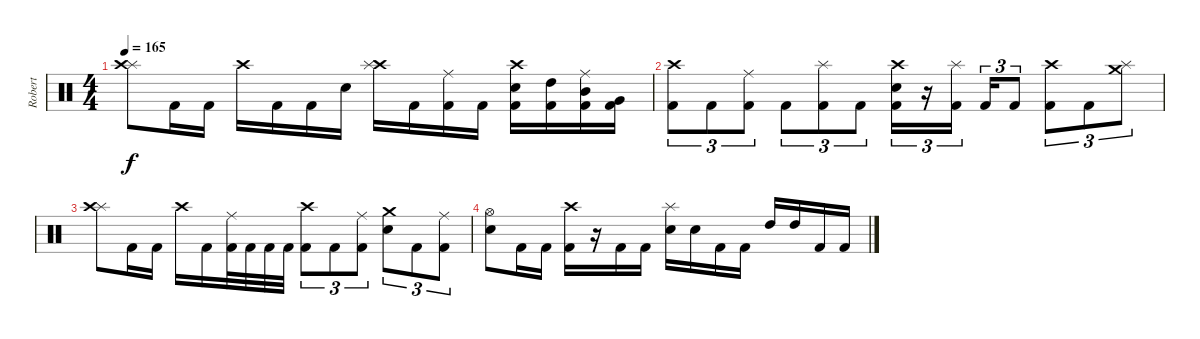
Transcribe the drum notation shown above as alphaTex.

\track ("Robert" "Robert") {instrument percussion}
\staff {score}
\articulation defaults
\ts (4 4)
\tempo 165
\clef neutral
\ks c
("Splash (hit)" "Crash high (hit)").8{dy f} "Kick (hit) 2".16 "Kick (hit) 2".16 "Crash high (hit)".16 "Kick (hit) 2".16 "Kick (hit) 2".16 "Electric Snare (hit)".16 ("Crash high (hit)" "Splash (hit)").16 "Kick (hit) 2".16 ("Ride (middle)" "Kick (hit) 2").16 "Kick (hit) 2".16 ("Kick (hit) 2" "Electric Snare (hit)" "Crash high (hit)").16 ("Kick (hit) 2" "High Tom (hit)").16 ("Ride (middle)" "Kick (hit) 2" "Mid Tom (hit)").16 ("Kick (hit) 2" "Very Low Tom (hit)").16 |
("Crash high (hit)" "Kick (hit) 2").8{tu (3 2)} "Kick (hit) 2".8{tu (3 2)} ("Ride (middle)" "Kick (hit) 2").8{tu (3 2)} "Kick (hit) 2".8{tu (3 2)} ("Splash (hit)" "Kick (hit) 2").8{tu (3 2)} "Kick (hit) 2".8{tu (3 2)} ("Crash high (hit)" "Kick (hit) 2" "Electric Snare (hit)").16{tu (3 2)} r.16{tu (3 2)} ("Splash (hit)" "Kick (hit) 2").16{tu (3 2) beam splitsecondary} "Kick (hit) 2".16{tu (3 2)} "Kick (hit) 2".8{tu (3 2)} ("Crash high (hit)" "Kick (hit) 2").8{tu (3 2)} "Kick (hit) 2".8{tu (3 2)} ("Splash (hit)" "Crash medium (hit)").8{tu (3 2)} |
("Splash (hit)" "Crash high (hit)").8 "Kick (hit) 2".16 "Kick (hit) 2".16 "Crash high (hit)".16 "Kick (hit) 2".16 ("Ride (middle)" "Kick (hit) 2").32 "Kick (hit) 2".32 "Kick (hit) 2".32 "Kick (hit) 2".32 ("Kick (hit) 2" "Crash high (hit)").8{tu (3 2)} "Kick (hit) 2".8{tu (3 2)} ("Kick (hit) 2" "Ride (middle)").8{tu (3 2)} ("Electric Snare (hit)" "Crash medium (hit)").8{tu (3 2)} "Kick (hit) 2".8{tu (3 2)} ("Kick (hit) 2" "Ride (middle)").8{tu (3 2)} |
("Hi-Hat (open)" "Electric Snare (hit)").8 "Kick (hit) 2".16 "Kick (hit) 2".16 ("Crash high (hit)" "Kick (hit) 2").16 r.16 "Kick (hit) 2".16 "Kick (hit) 2".16 ("Splash (hit)" "Electric Snare (hit)").16 "Electric Snare (hit)".16 "Kick (hit) 2".16 "Kick (hit) 2".16 "High Tom (hit)".16 "High Tom (hit)".16 "Kick (hit) 2".16 "Kick (hit) 2".16
